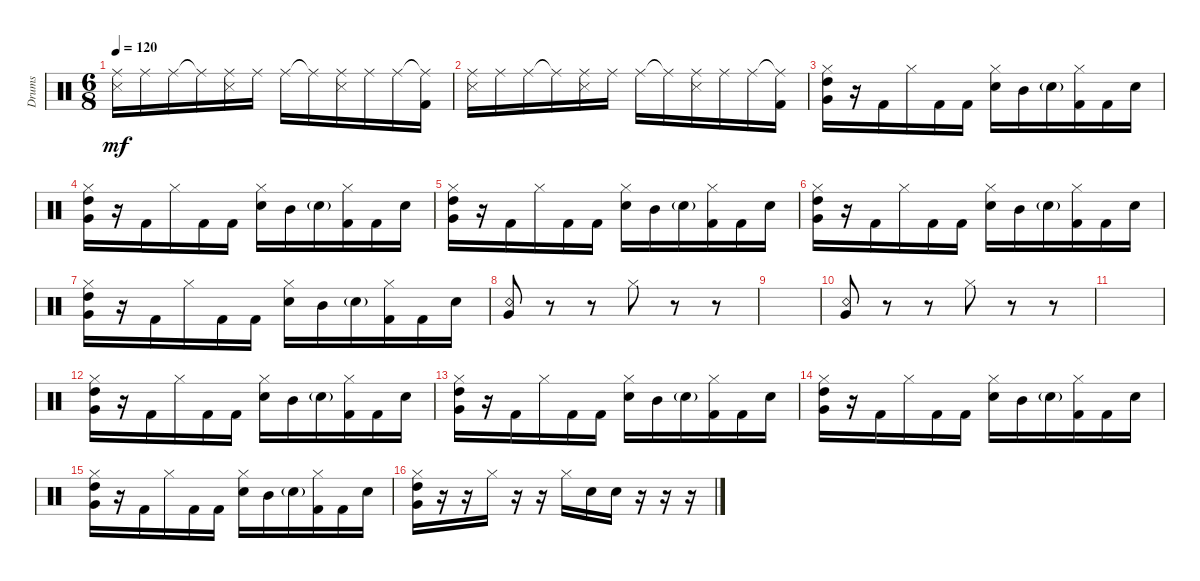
\defaultSystemsLayout 4
\bracketExtendMode groupsimilarinstruments
\otherSystemsTrackNameOrientation horizontal
\track ("Drumkit" "Drums") {instrument percussion}
\staff {score}
\articulation defaults
\ts (6 8)
\tempo 120
\clef neutral
\ks c
("Snare (side stick) 3" "Ride (middle)").16{dy mf} "Ride (middle)".16 "Ride (middle)".16 "Ride (middle)"{t}.16 ("Snare (side stick) 3" "Ride (middle)").16 "Ride (middle)".16 "Ride (middle)".16 "Ride (middle)"{t}.16 ("Snare (side stick) 3" "Ride (middle)").16 "Ride (middle)".16 "Ride (middle)".16 ("Ride (middle)"{t} "Kick (hit) 2").16 |
("Snare (side stick) 3" "Ride (middle)").16 "Ride (middle)".16 "Ride (middle)".16 "Ride (middle)"{t}.16 ("Snare (side stick) 3" "Ride (middle)").16 "Ride (middle)".16 "Ride (middle)".16 "Ride (middle)"{t}.16 ("Snare (side stick) 3" "Ride (middle)").16 "Ride (middle)".16 "Ride (middle)".16 ("Ride (middle)"{t} "Kick (hit) 2").16 |
("Very Low Tom (hit)" "Hi-Hat (closed)" "High Tom (hit)").16 r.16 "Kick (hit) 2".16 "Hi-Hat (closed)".16 "Kick (hit) 2".16 "Kick (hit) 2".16 ("Snare (hit) 2" "Hi-Hat (closed)").16 "Mid Tom (hit)".16 "Snare (hit) 2"{g}.16 ("Kick (hit) 2" "Hi-Hat (closed)").16 "Kick (hit) 2".16 "Snare (hit) 2".16 |
("Very Low Tom (hit)" "Hi-Hat (closed)" "High Tom (hit)").16 r.16 "Kick (hit) 2".16 "Hi-Hat (closed)".16 "Kick (hit) 2".16 "Kick (hit) 2".16 ("Snare (hit) 2" "Hi-Hat (closed)").16 "Mid Tom (hit)".16 "Snare (hit) 2"{g}.16 ("Kick (hit) 2" "Hi-Hat (closed)").16 "Kick (hit) 2".16 "Snare (hit) 2".16 |
("Very Low Tom (hit)" "Hi-Hat (closed)" "High Tom (hit)").16 r.16 "Kick (hit) 2".16 "Hi-Hat (closed)".16 "Kick (hit) 2".16 "Kick (hit) 2".16 ("Snare (hit) 2" "Hi-Hat (closed)").16 "Mid Tom (hit)".16 "Snare (hit) 2"{g}.16 ("Kick (hit) 2" "Hi-Hat (closed)").16 "Kick (hit) 2".16 "Snare (hit) 2".16 |
("Very Low Tom (hit)" "Hi-Hat (closed)" "High Tom (hit)").16 r.16 "Kick (hit) 2".16 "Hi-Hat (closed)".16 "Kick (hit) 2".16 "Kick (hit) 2".16 ("Snare (hit) 2" "Hi-Hat (closed)").16 "Mid Tom (hit)".16 "Snare (hit) 2"{g}.16 ("Kick (hit) 2" "Hi-Hat (closed)").16 "Kick (hit) 2".16 "Snare (hit) 2".16 |
("Very Low Tom (hit)" "Hi-Hat (closed)" "High Tom (hit)").16 r.16 "Kick (hit) 2".16 "Hi-Hat (closed)".16 "Kick (hit) 2".16 "Kick (hit) 2".16 ("Snare (hit) 2" "Hi-Hat (closed)").16 "Mid Tom (hit)".16 "Snare (hit) 2"{g}.16 ("Kick (hit) 2" "Hi-Hat (closed)").16 "Kick (hit) 2".16 "Snare (hit) 2".16 |
("Very Low Tom (hit)" "Snare (rim shot)").8 r.8 r.8 "Hi-Hat (closed)".8 r.8 r.8 |
|
("Very Low Tom (hit)" "Snare (rim shot)").8 r.8 r.8 "Hi-Hat (closed)".8 r.8 r.8 |
|
("Very Low Tom (hit)" "Hi-Hat (closed)" "High Tom (hit)").16 r.16 "Kick (hit) 2".16 "Hi-Hat (closed)".16 "Kick (hit) 2".16 "Kick (hit) 2".16 ("Snare (hit) 2" "Hi-Hat (closed)").16 "Mid Tom (hit)".16 "Snare (hit) 2"{g}.16 ("Kick (hit) 2" "Hi-Hat (closed)").16 "Kick (hit) 2".16 "Snare (hit) 2".16 |
("Very Low Tom (hit)" "Hi-Hat (closed)" "High Tom (hit)").16 r.16 "Kick (hit) 2".16 "Hi-Hat (closed)".16 "Kick (hit) 2".16 "Kick (hit) 2".16 ("Snare (hit) 2" "Hi-Hat (closed)").16 "Mid Tom (hit)".16 "Snare (hit) 2"{g}.16 ("Kick (hit) 2" "Hi-Hat (closed)").16 "Kick (hit) 2".16 "Snare (hit) 2".16 |
("Very Low Tom (hit)" "Hi-Hat (closed)" "High Tom (hit)").16 r.16 "Kick (hit) 2".16 "Hi-Hat (closed)".16 "Kick (hit) 2".16 "Kick (hit) 2".16 ("Snare (hit) 2" "Hi-Hat (closed)").16 "Mid Tom (hit)".16 "Snare (hit) 2"{g}.16 ("Kick (hit) 2" "Hi-Hat (closed)").16 "Kick (hit) 2".16 "Snare (hit) 2".16 |
("Very Low Tom (hit)" "Hi-Hat (closed)" "High Tom (hit)").16 r.16 "Kick (hit) 2".16 "Hi-Hat (closed)".16 "Kick (hit) 2".16 "Kick (hit) 2".16 ("Snare (hit) 2" "Hi-Hat (closed)").16 "Mid Tom (hit)".16 "Snare (hit) 2"{g}.16 ("Kick (hit) 2" "Hi-Hat (closed)").16 "Kick (hit) 2".16 "Snare (hit) 2".16 |
("Very Low Tom (hit)" "Hi-Hat (closed)" "High Tom (hit)").16 r.16 r.16 "Hi-Hat (closed)".16 r.16 r.16 "Hi-Hat (closed)".16 "Snare (hit) 2".16 "Snare (hit) 2".16 r.16 r.16 r.16
